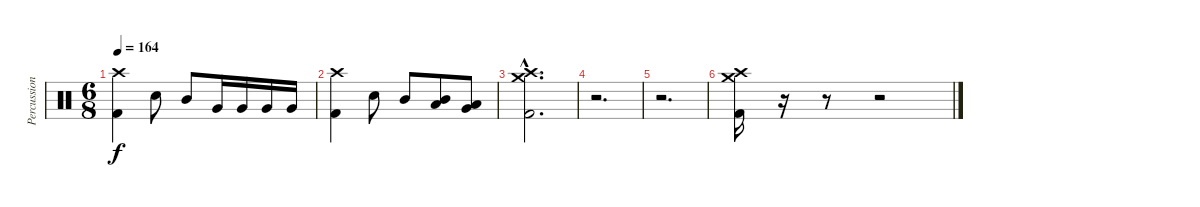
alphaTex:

\track ("Percussion" "Percussion") {instrument percussion}
\staff {score}
\articulation defaults
\ts (6 8)
\tempo 164
\clef neutral
\ks c
("Crash high (hit)" "Kick (hit) 2").4{dy f} "Snare (hit) 2".8 "Mid Tom (hit)".8 "Very Low Tom (hit)".16 "Very Low Tom (hit)".16 "Very Low Tom (hit)".16 "Very Low Tom (hit)".16 |
("Crash high (hit)" "Kick (hit) 2").4 "Snare (hit) 2".8 "Mid Tom (hit)".8 ("Mid Tom (hit)" "Low Tom (hit)").8 ("Low Tom (hit)" "Very Low Tom (hit)").8 |
("Crash high (hit)"{hac} "Crash medium (hit)"{hac} "Kick (hit) 2"{hac}).2{d} |
r.2{d} |
r.2{d} |
("Crash high (hit)" "Crash medium (hit)" "Kick (hit) 2").16 r.16 r.8 r.2
